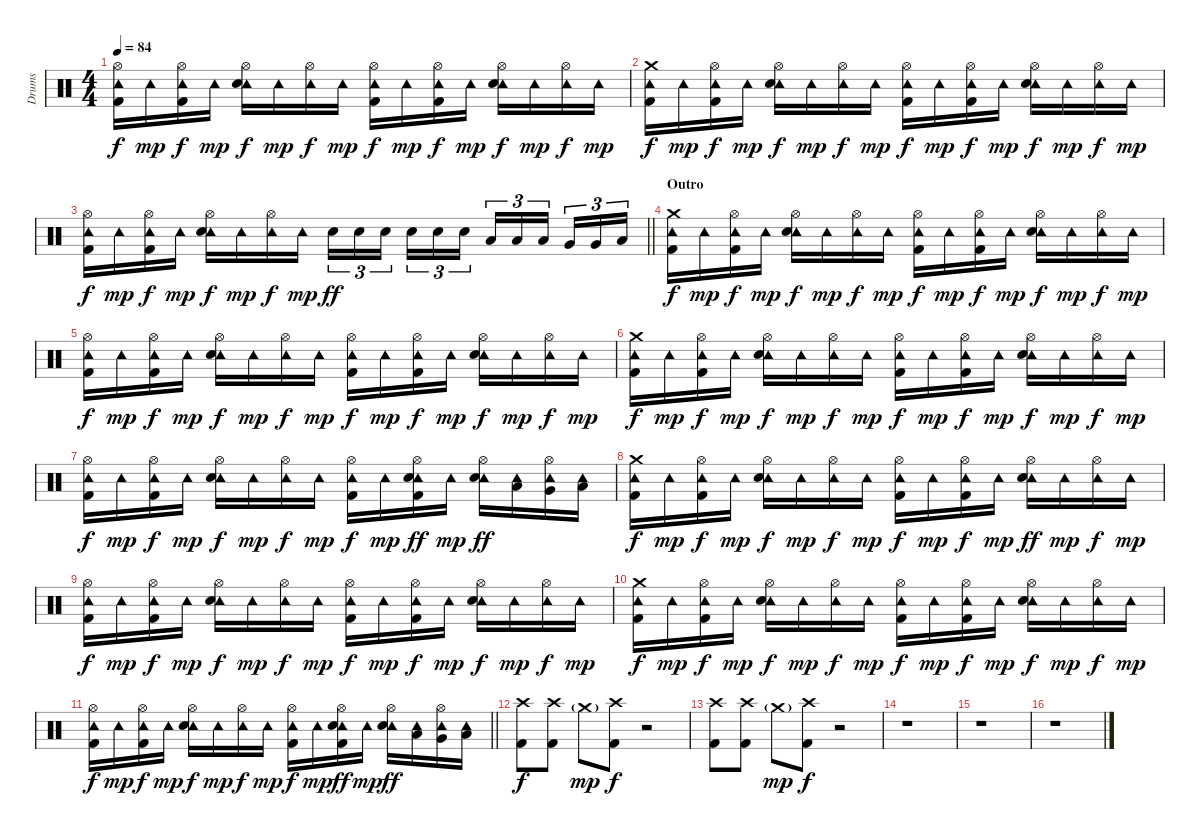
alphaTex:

\track ("Drums" "Drums") {instrument percussion}
\staff {score}
\articulation defaults
\ts (4 4)
\tempo 84
\clef neutral
\ks c
("Hi-Hat (open)" "Tambourine (hit)" "Kick (hit) 2").16{dy f} "Tambourine (hit)".16{dy mp} ("Hi-Hat (open)" "Tambourine (hit)" "Kick (hit) 2").16{dy f} "Tambourine (hit)".16{dy mp} ("Hi-Hat (open)" "Tambourine (hit)" "Electric Snare (hit)").16{dy f} "Tambourine (hit)".16{dy mp} ("Hi-Hat (open)" "Tambourine (hit)").16{dy f} "Tambourine (hit)".16{dy mp} ("Hi-Hat (open)" "Tambourine (hit)" "Kick (hit) 2").16{dy f} "Tambourine (hit)".16{dy mp} ("Hi-Hat (open)" "Tambourine (hit)" "Kick (hit) 2").16{dy f} "Tambourine (hit)".16{dy mp} ("Hi-Hat (open)" "Tambourine (hit)" "Electric Snare (hit)").16{dy f} "Tambourine (hit)".16{dy mp} ("Hi-Hat (open)" "Tambourine (hit)").16{dy f} "Tambourine (hit)".16{dy mp} |
("Crash medium (hit)" "Tambourine (hit)" "Kick (hit) 2").16{dy f} "Tambourine (hit)".16{dy mp} ("Hi-Hat (open)" "Tambourine (hit)" "Kick (hit) 2").16{dy f} "Tambourine (hit)".16{dy mp} ("Hi-Hat (open)" "Tambourine (hit)" "Electric Snare (hit)").16{dy f} "Tambourine (hit)".16{dy mp} ("Hi-Hat (open)" "Tambourine (hit)").16{dy f} "Tambourine (hit)".16{dy mp} ("Hi-Hat (open)" "Tambourine (hit)" "Kick (hit) 2").16{dy f} "Tambourine (hit)".16{dy mp} ("Hi-Hat (open)" "Tambourine (hit)" "Kick (hit) 2").16{dy f} "Tambourine (hit)".16{dy mp} ("Hi-Hat (open)" "Tambourine (hit)" "Electric Snare (hit)").16{dy f} "Tambourine (hit)".16{dy mp} ("Hi-Hat (open)" "Tambourine (hit)").16{dy f} "Tambourine (hit)".16{dy mp} |
\barLineRight lightlight
("Hi-Hat (open)" "Tambourine (hit)" "Kick (hit) 2").16{dy f} "Tambourine (hit)".16{dy mp} ("Hi-Hat (open)" "Tambourine (hit)" "Kick (hit) 2").16{dy f} "Tambourine (hit)".16{dy mp} ("Hi-Hat (open)" "Tambourine (hit)" "Electric Snare (hit)").16{dy f} "Tambourine (hit)".16{dy mp} ("Hi-Hat (open)" "Tambourine (hit)").16{dy f} "Tambourine (hit)".16{dy mp} "Electric Snare (hit)".16{tu (3 2) dy ff} "Electric Snare (hit)".16{tu (3 2)} "Electric Snare (hit)".16{tu (3 2) beam splitsecondary} "Electric Snare (hit)".16{tu (3 2)} "Electric Snare (hit)".16{tu (3 2)} "Electric Snare (hit)".16{tu (3 2)} "Low Tom (hit)".16{tu (3 2)} "Low Tom (hit)".16{tu (3 2)} "Low Tom (hit)".16{tu (3 2) beam splitsecondary} "Very Low Tom (hit)".16{tu (3 2)} "Very Low Tom (hit)".16{tu (3 2)} "Low Floor Tom (hit)".16{tu (3 2)} |
\section ("" "Outro")
("Crash medium (hit)" "Tambourine (hit)" "Kick (hit) 2").16{dy f} "Tambourine (hit)".16{dy mp} ("Hi-Hat (open)" "Tambourine (hit)" "Kick (hit) 2").16{dy f} "Tambourine (hit)".16{dy mp} ("Hi-Hat (open)" "Tambourine (hit)" "Electric Snare (hit)").16{dy f} "Tambourine (hit)".16{dy mp} ("Hi-Hat (open)" "Tambourine (hit)").16{dy f} "Tambourine (hit)".16{dy mp} ("Hi-Hat (open)" "Tambourine (hit)" "Kick (hit) 2").16{dy f} "Tambourine (hit)".16{dy mp} ("Hi-Hat (open)" "Tambourine (hit)" "Kick (hit) 2").16{dy f} "Tambourine (hit)".16{dy mp} ("Hi-Hat (open)" "Tambourine (hit)" "Electric Snare (hit)").16{dy f} "Tambourine (hit)".16{dy mp} ("Hi-Hat (open)" "Tambourine (hit)").16{dy f} "Tambourine (hit)".16{dy mp} |
("Hi-Hat (open)" "Tambourine (hit)" "Kick (hit) 2").16{dy f} "Tambourine (hit)".16{dy mp} ("Hi-Hat (open)" "Tambourine (hit)" "Kick (hit) 2").16{dy f} "Tambourine (hit)".16{dy mp} ("Hi-Hat (open)" "Tambourine (hit)" "Electric Snare (hit)").16{dy f} "Tambourine (hit)".16{dy mp} ("Hi-Hat (open)" "Tambourine (hit)").16{dy f} "Tambourine (hit)".16{dy mp} ("Hi-Hat (open)" "Tambourine (hit)" "Kick (hit) 2").16{dy f} "Tambourine (hit)".16{dy mp} ("Hi-Hat (open)" "Tambourine (hit)" "Kick (hit) 2").16{dy f} "Tambourine (hit)".16{dy mp} ("Hi-Hat (open)" "Tambourine (hit)" "Electric Snare (hit)").16{dy f} "Tambourine (hit)".16{dy mp} ("Hi-Hat (open)" "Tambourine (hit)").16{dy f} "Tambourine (hit)".16{dy mp} |
("Crash medium (hit)" "Tambourine (hit)" "Kick (hit) 2").16{dy f} "Tambourine (hit)".16{dy mp} ("Hi-Hat (open)" "Tambourine (hit)" "Kick (hit) 2").16{dy f} "Tambourine (hit)".16{dy mp} ("Hi-Hat (open)" "Tambourine (hit)" "Electric Snare (hit)").16{dy f} "Tambourine (hit)".16{dy mp} ("Hi-Hat (open)" "Tambourine (hit)").16{dy f} "Tambourine (hit)".16{dy mp} ("Hi-Hat (open)" "Tambourine (hit)" "Kick (hit) 2").16{dy f} "Tambourine (hit)".16{dy mp} ("Hi-Hat (open)" "Tambourine (hit)" "Kick (hit) 2").16{dy f} "Tambourine (hit)".16{dy mp} ("Hi-Hat (open)" "Tambourine (hit)" "Electric Snare (hit)").16{dy f} "Tambourine (hit)".16{dy mp} ("Hi-Hat (open)" "Tambourine (hit)").16{dy f} "Tambourine (hit)".16{dy mp} |
("Hi-Hat (open)" "Tambourine (hit)" "Kick (hit) 2").16{dy f} "Tambourine (hit)".16{dy mp} ("Hi-Hat (open)" "Tambourine (hit)" "Kick (hit) 2").16{dy f} "Tambourine (hit)".16{dy mp} ("Hi-Hat (open)" "Tambourine (hit)" "Electric Snare (hit)").16{dy f} "Tambourine (hit)".16{dy mp} ("Hi-Hat (open)" "Tambourine (hit)").16{dy f} "Tambourine (hit)".16{dy mp} ("Hi-Hat (open)" "Tambourine (hit)" "Kick (hit) 2").16{dy f} "Tambourine (hit)".16{dy mp} ("Hi-Hat (open)" "Tambourine (hit)" "Electric Snare (hit)" "Kick (hit) 2").16{dy ff} "Tambourine (hit)".16{dy mp} ("Hi-Hat (open)" "Tambourine (hit)" "Electric Snare (hit)").16{dy ff} ("Tambourine (hit)" "Low Tom (hit)").16 ("Hi-Hat (open)" "Tambourine (hit)" "Very Low Tom (hit)").16 ("Tambourine (hit)" "Low Floor Tom (hit)").16 |
("Crash medium (hit)" "Tambourine (hit)" "Kick (hit) 2").16{dy f} "Tambourine (hit)".16{dy mp} ("Hi-Hat (open)" "Tambourine (hit)" "Kick (hit) 2").16{dy f} "Tambourine (hit)".16{dy mp} ("Hi-Hat (open)" "Tambourine (hit)" "Electric Snare (hit)").16{dy f} "Tambourine (hit)".16{dy mp} ("Hi-Hat (open)" "Tambourine (hit)").16{dy f} "Tambourine (hit)".16{dy mp} ("Hi-Hat (open)" "Tambourine (hit)" "Kick (hit) 2").16{dy f} "Tambourine (hit)".16{dy mp} ("Hi-Hat (open)" "Tambourine (hit)" "Kick (hit) 2").16{dy f} "Tambourine (hit)".16{dy mp} ("Hi-Hat (open)" "Tambourine (hit)" "Electric Snare (hit)").16{dy ff} "Tambourine (hit)".16{dy mp} ("Hi-Hat (open)" "Tambourine (hit)").16{dy f} "Tambourine (hit)".16{dy mp} |
("Hi-Hat (open)" "Tambourine (hit)" "Kick (hit) 2").16{dy f} "Tambourine (hit)".16{dy mp} ("Hi-Hat (open)" "Tambourine (hit)" "Kick (hit) 2").16{dy f} "Tambourine (hit)".16{dy mp} ("Hi-Hat (open)" "Tambourine (hit)" "Electric Snare (hit)").16{dy f} "Tambourine (hit)".16{dy mp} ("Hi-Hat (open)" "Tambourine (hit)").16{dy f} "Tambourine (hit)".16{dy mp} ("Hi-Hat (open)" "Tambourine (hit)" "Kick (hit) 2").16{dy f} "Tambourine (hit)".16{dy mp} ("Hi-Hat (open)" "Tambourine (hit)" "Kick (hit) 2").16{dy f} "Tambourine (hit)".16{dy mp} ("Hi-Hat (open)" "Tambourine (hit)" "Electric Snare (hit)").16{dy f} "Tambourine (hit)".16{dy mp} ("Hi-Hat (open)" "Tambourine (hit)").16{dy f} "Tambourine (hit)".16{dy mp} |
("Crash medium (hit)" "Tambourine (hit)" "Kick (hit) 2").16{dy f} "Tambourine (hit)".16{dy mp} ("Hi-Hat (open)" "Tambourine (hit)" "Kick (hit) 2").16{dy f} "Tambourine (hit)".16{dy mp} ("Hi-Hat (open)" "Tambourine (hit)" "Electric Snare (hit)").16{dy f} "Tambourine (hit)".16{dy mp} ("Hi-Hat (open)" "Tambourine (hit)").16{dy f} "Tambourine (hit)".16{dy mp} ("Hi-Hat (open)" "Tambourine (hit)" "Kick (hit) 2").16{dy f} "Tambourine (hit)".16{dy mp} ("Hi-Hat (open)" "Tambourine (hit)" "Kick (hit) 2").16{dy f} "Tambourine (hit)".16{dy mp} ("Hi-Hat (open)" "Tambourine (hit)" "Electric Snare (hit)").16{dy f} "Tambourine (hit)".16{dy mp} ("Hi-Hat (open)" "Tambourine (hit)").16{dy f} "Tambourine (hit)".16{dy mp} |
\barLineRight lightlight
("Hi-Hat (open)" "Tambourine (hit)" "Kick (hit) 2").16{dy f} "Tambourine (hit)".16{dy mp} ("Hi-Hat (open)" "Tambourine (hit)" "Kick (hit) 2").16{dy f} "Tambourine (hit)".16{dy mp} ("Hi-Hat (open)" "Tambourine (hit)" "Electric Snare (hit)").16{dy f} "Tambourine (hit)".16{dy mp} ("Hi-Hat (open)" "Tambourine (hit)").16{dy f} "Tambourine (hit)".16{dy mp} ("Hi-Hat (open)" "Tambourine (hit)" "Kick (hit) 2").16{dy f} "Tambourine (hit)".16{dy mp} ("Hi-Hat (open)" "Tambourine (hit)" "Electric Snare (hit)" "Kick (hit) 2").16{dy ff} "Tambourine (hit)".16{dy mp} ("Hi-Hat (open)" "Tambourine (hit)" "Electric Snare (hit)").16{dy ff} ("Tambourine (hit)" "Low Tom (hit)").16 ("Hi-Hat (open)" "Tambourine (hit)" "Very Low Tom (hit)").16 ("Tambourine (hit)" "Low Floor Tom (hit)").16 |
("Crash high (hit)" "Kick (hit) 2").8{dy f} ("Crash high (hit)" "Kick (hit) 2").8 "Crash medium (hit)"{g}.8{dy mp} ("Crash high (hit)" "Kick (hit) 2").8{dy f} r.2 |
("Crash high (hit)" "Kick (hit) 2").8 ("Crash high (hit)" "Kick (hit) 2").8 "Crash medium (hit)"{g}.8{dy mp} ("Crash high (hit)" "Kick (hit) 2").8{dy f} r.2 |
r.1 |
r.1 |
r.1
